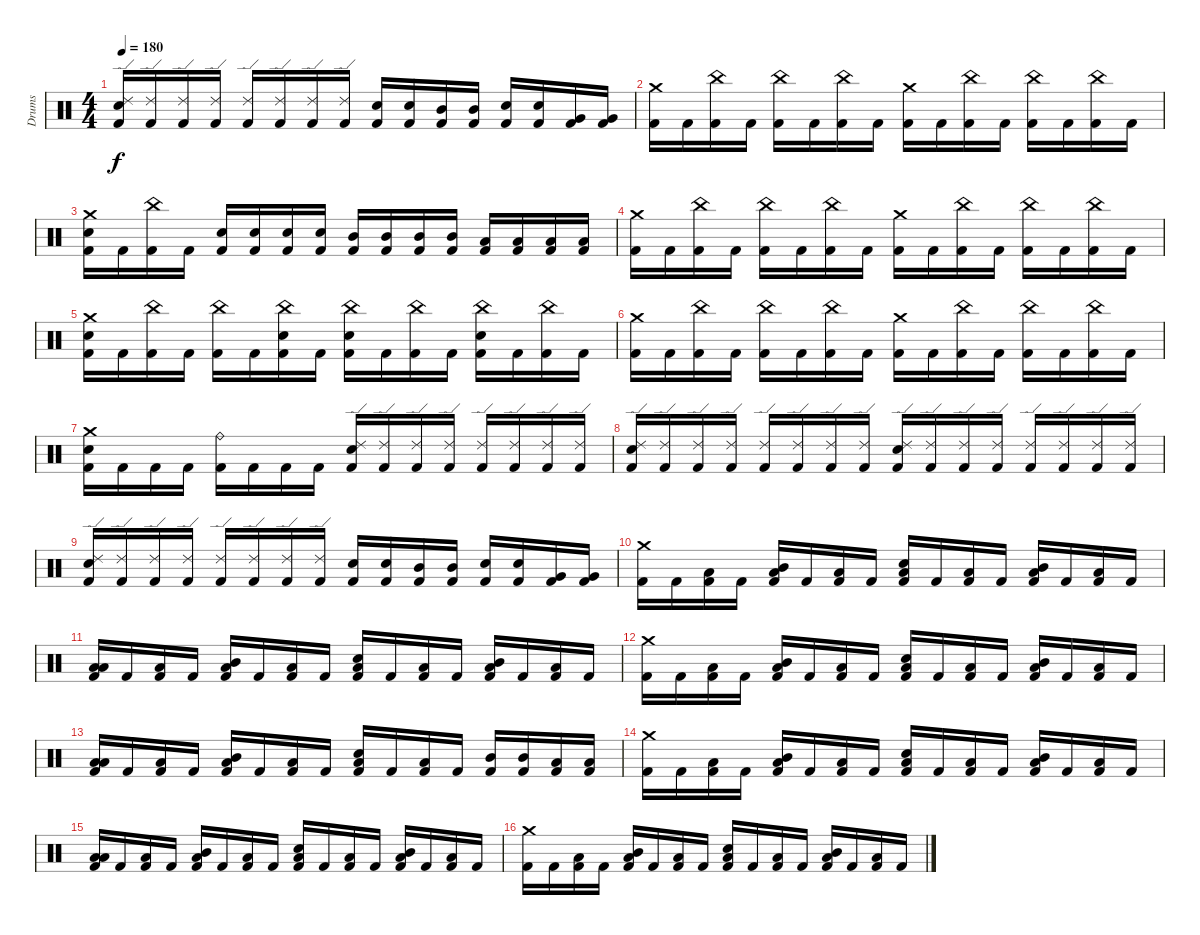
\track ("Drums" "Drums") {instrument percussion}
\staff {score}
\articulation defaults
\ts (4 4)
\tempo 180
\clef neutral
\ks c
("Ride (edge) 2" "Snare (hit) 2" "Kick (hit) 2").16{dy f} ("Ride (edge) 2" "Kick (hit) 2").16 ("Ride (edge) 2" "Kick (hit) 2").16 ("Ride (edge) 2" "Kick (hit) 2").16 ("Ride (edge) 2" "Kick (hit) 2").16 ("Ride (edge) 2" "Kick (hit) 2").16 ("Ride (edge) 2" "Kick (hit) 2").16 ("Ride (edge) 2" "Kick (hit) 2").16 ("Snare (hit) 2" "Kick (hit) 2").16 ("Snare (hit) 2" "Kick (hit) 2").16 ("Mid Tom (hit)" "Kick (hit) 2").16 ("Mid Tom (hit)" "Kick (hit) 2").16 ("Snare (hit) 2" "Kick (hit) 2").16 ("Snare (hit) 2" "Kick (hit) 2").16 ("Very Low Tom (hit)" "Kick (hit) 2").16 ("Very Low Tom (hit)" "Kick (hit) 2").16 |
("Crash medium (hit)" "Kick (hit) 2").16 "Kick (hit) 2".16 ("China (hit)" "Kick (hit) 2").16 "Kick (hit) 2".16 ("China (hit)" "Kick (hit) 2").16 "Kick (hit) 2".16 ("China (hit)" "Kick (hit) 2").16 "Kick (hit) 2".16 ("Crash medium (hit)" "Kick (hit) 2").16 "Kick (hit) 2".16 ("China (hit)" "Kick (hit) 2").16 "Kick (hit) 2".16 ("China (hit)" "Kick (hit) 2").16 "Kick (hit) 2".16 ("China (hit)" "Kick (hit) 2").16 "Kick (hit) 2".16 |
("Crash medium (hit)" "Snare (hit) 2" "Kick (hit) 2").16 "Kick (hit) 2".16 ("China (hit)" "Kick (hit) 2").16 "Kick (hit) 2".16 ("Snare (hit) 2" "Kick (hit) 2").16 ("Snare (hit) 2" "Kick (hit) 2").16 ("Snare (hit) 2" "Kick (hit) 2").16 ("Snare (hit) 2" "Kick (hit) 2").16 ("Mid Tom (hit)" "Kick (hit) 2").16 ("Mid Tom (hit)" "Kick (hit) 2").16 ("Mid Tom (hit)" "Kick (hit) 2").16 ("Mid Tom (hit)" "Kick (hit) 2").16 ("Low Tom (hit)" "Kick (hit) 2").16 ("Low Tom (hit)" "Kick (hit) 2").16 ("Low Tom (hit)" "Kick (hit) 2").16 ("Low Tom (hit)" "Kick (hit) 2").16 |
("Crash medium (hit)" "Kick (hit) 2").16 "Kick (hit) 2".16 ("China (hit)" "Kick (hit) 2").16 "Kick (hit) 2".16 ("China (hit)" "Kick (hit) 2").16 "Kick (hit) 2".16 ("China (hit)" "Kick (hit) 2").16 "Kick (hit) 2".16 ("Crash medium (hit)" "Kick (hit) 2").16 "Kick (hit) 2".16 ("China (hit)" "Kick (hit) 2").16 "Kick (hit) 2".16 ("China (hit)" "Kick (hit) 2").16 "Kick (hit) 2".16 ("China (hit)" "Kick (hit) 2").16 "Kick (hit) 2".16 |
("Crash medium (hit)" "Snare (hit) 2" "Kick (hit) 2").16 "Kick (hit) 2".16 ("China (hit)" "Kick (hit) 2").16 "Kick (hit) 2".16 ("China (hit)" "Kick (hit) 2").16 "Kick (hit) 2".16 ("China (hit)" "Snare (hit) 2" "Kick (hit) 2").16 "Kick (hit) 2".16 ("China (hit)" "Snare (hit) 2" "Kick (hit) 2").16 "Kick (hit) 2".16 ("China (hit)" "Kick (hit) 2").16 "Kick (hit) 2".16 ("China (hit)" "Snare (hit) 2" "Kick (hit) 2").16 "Kick (hit) 2".16 ("China (hit)" "Kick (hit) 2").16 "Kick (hit) 2".16 |
("Crash medium (hit)" "Kick (hit) 2").16 "Kick (hit) 2".16 ("China (hit)" "Kick (hit) 2").16 "Kick (hit) 2".16 ("China (hit)" "Kick (hit) 2").16 "Kick (hit) 2".16 ("China (hit)" "Kick (hit) 2").16 "Kick (hit) 2".16 ("Crash medium (hit)" "Kick (hit) 2").16 "Kick (hit) 2".16 ("China (hit)" "Kick (hit) 2").16 "Kick (hit) 2".16 ("China (hit)" "Kick (hit) 2").16 "Kick (hit) 2".16 ("China (hit)" "Kick (hit) 2").16 "Kick (hit) 2".16 |
("Crash medium (hit)" "Snare (hit) 2" "Kick (hit) 2").16 "Kick (hit) 2".16 "Kick (hit) 2".16 "Kick (hit) 2".16 ("Ride (bell)" "Kick (hit) 2").16 "Kick (hit) 2".16 "Kick (hit) 2".16 "Kick (hit) 2".16 ("Ride (edge) 2" "Snare (hit) 2" "Kick (hit) 2").16 ("Ride (edge) 2" "Kick (hit) 2").16 ("Ride (edge) 2" "Kick (hit) 2").16 ("Ride (edge) 2" "Kick (hit) 2").16 ("Ride (edge) 2" "Kick (hit) 2").16 ("Ride (edge) 2" "Kick (hit) 2").16 ("Ride (edge) 2" "Kick (hit) 2").16 ("Ride (edge) 2" "Kick (hit) 2").16 |
("Ride (edge) 2" "Snare (hit) 2" "Kick (hit) 2").16 ("Ride (edge) 2" "Kick (hit) 2").16 ("Ride (edge) 2" "Kick (hit) 2").16 ("Ride (edge) 2" "Kick (hit) 2").16 ("Ride (edge) 2" "Kick (hit) 2").16 ("Ride (edge) 2" "Kick (hit) 2").16 ("Ride (edge) 2" "Kick (hit) 2").16 ("Ride (edge) 2" "Kick (hit) 2").16 ("Ride (edge) 2" "Snare (hit) 2" "Kick (hit) 2").16 ("Ride (edge) 2" "Kick (hit) 2").16 ("Ride (edge) 2" "Kick (hit) 2").16 ("Ride (edge) 2" "Kick (hit) 2").16 ("Ride (edge) 2" "Kick (hit) 2").16 ("Ride (edge) 2" "Kick (hit) 2").16 ("Ride (edge) 2" "Kick (hit) 2").16 ("Ride (edge) 2" "Kick (hit) 2").16 |
("Ride (edge) 2" "Snare (hit) 2" "Kick (hit) 2").16 ("Ride (edge) 2" "Kick (hit) 2").16 ("Ride (edge) 2" "Kick (hit) 2").16 ("Ride (edge) 2" "Kick (hit) 2").16 ("Ride (edge) 2" "Kick (hit) 2").16 ("Ride (edge) 2" "Kick (hit) 2").16 ("Ride (edge) 2" "Kick (hit) 2").16 ("Ride (edge) 2" "Kick (hit) 2").16 ("Snare (hit) 2" "Kick (hit) 2").16 ("Snare (hit) 2" "Kick (hit) 2").16 ("Mid Tom (hit)" "Kick (hit) 2").16 ("Mid Tom (hit)" "Kick (hit) 2").16 ("Snare (hit) 2" "Kick (hit) 2").16 ("Snare (hit) 2" "Kick (hit) 2").16 ("Very Low Tom (hit)" "Kick (hit) 2").16 ("Very Low Tom (hit)" "Kick (hit) 2").16 |
("Crash medium (hit)" "Kick (hit) 2").16 "Kick (hit) 2".16 ("Low Floor Tom (hit)" "Kick (hit) 2").16 "Kick (hit) 2".16 ("Low Floor Tom (hit)" "Mid Tom (hit)" "Kick (hit) 2").16 "Kick (hit) 2".16 ("Low Floor Tom (hit)" "Kick (hit) 2").16 "Kick (hit) 2".16 ("Low Floor Tom (hit)" "Snare (hit) 2" "Kick (hit) 2").16 "Kick (hit) 2".16 ("Low Floor Tom (hit)" "Kick (hit) 2").16 "Kick (hit) 2".16 ("Low Floor Tom (hit)" "Mid Tom (hit)" "Kick (hit) 2").16 "Kick (hit) 2".16 ("Low Floor Tom (hit)" "Kick (hit) 2").16 "Kick (hit) 2".16 |
("Low Floor Tom (hit)" "Low Tom (hit)" "Kick (hit) 2").16 "Kick (hit) 2".16 ("Low Floor Tom (hit)" "Kick (hit) 2").16 "Kick (hit) 2".16 ("Low Floor Tom (hit)" "Mid Tom (hit)" "Kick (hit) 2").16 "Kick (hit) 2".16 ("Low Floor Tom (hit)" "Kick (hit) 2").16 "Kick (hit) 2".16 ("Low Floor Tom (hit)" "Snare (hit) 2" "Kick (hit) 2").16 "Kick (hit) 2".16 ("Low Floor Tom (hit)" "Kick (hit) 2").16 "Kick (hit) 2".16 ("Low Floor Tom (hit)" "Mid Tom (hit)" "Kick (hit) 2").16 "Kick (hit) 2".16 ("Low Floor Tom (hit)" "Kick (hit) 2").16 "Kick (hit) 2".16 |
("Crash medium (hit)" "Kick (hit) 2").16 "Kick (hit) 2".16 ("Low Floor Tom (hit)" "Kick (hit) 2").16 "Kick (hit) 2".16 ("Low Floor Tom (hit)" "Mid Tom (hit)" "Kick (hit) 2").16 "Kick (hit) 2".16 ("Low Floor Tom (hit)" "Kick (hit) 2").16 "Kick (hit) 2".16 ("Low Floor Tom (hit)" "Snare (hit) 2" "Kick (hit) 2").16 "Kick (hit) 2".16 ("Low Floor Tom (hit)" "Kick (hit) 2").16 "Kick (hit) 2".16 ("Low Floor Tom (hit)" "Mid Tom (hit)" "Kick (hit) 2").16 "Kick (hit) 2".16 ("Low Floor Tom (hit)" "Kick (hit) 2").16 "Kick (hit) 2".16 |
("Low Floor Tom (hit)" "Low Tom (hit)" "Kick (hit) 2").16 "Kick (hit) 2".16 ("Low Floor Tom (hit)" "Kick (hit) 2").16 "Kick (hit) 2".16 ("Low Floor Tom (hit)" "Mid Tom (hit)" "Kick (hit) 2").16 "Kick (hit) 2".16 ("Low Floor Tom (hit)" "Kick (hit) 2").16 "Kick (hit) 2".16 ("Low Floor Tom (hit)" "Snare (hit) 2" "Kick (hit) 2").16 "Kick (hit) 2".16 ("Low Floor Tom (hit)" "Kick (hit) 2").16 "Kick (hit) 2".16 ("Mid Tom (hit)" "Kick (hit) 2").16 ("Mid Tom (hit)" "Kick (hit) 2").16 ("Low Tom (hit)" "Kick (hit) 2").16 ("Low Tom (hit)" "Kick (hit) 2").16 |
("Crash medium (hit)" "Kick (hit) 2").16 "Kick (hit) 2".16 ("Low Floor Tom (hit)" "Kick (hit) 2").16 "Kick (hit) 2".16 ("Low Floor Tom (hit)" "Mid Tom (hit)" "Kick (hit) 2").16 "Kick (hit) 2".16 ("Low Floor Tom (hit)" "Kick (hit) 2").16 "Kick (hit) 2".16 ("Low Floor Tom (hit)" "Snare (hit) 2" "Kick (hit) 2").16 "Kick (hit) 2".16 ("Low Floor Tom (hit)" "Kick (hit) 2").16 "Kick (hit) 2".16 ("Low Floor Tom (hit)" "Mid Tom (hit)" "Kick (hit) 2").16 "Kick (hit) 2".16 ("Low Floor Tom (hit)" "Kick (hit) 2").16 "Kick (hit) 2".16 |
("Low Floor Tom (hit)" "Low Tom (hit)" "Kick (hit) 2").16 "Kick (hit) 2".16 ("Low Floor Tom (hit)" "Kick (hit) 2").16 "Kick (hit) 2".16 ("Low Floor Tom (hit)" "Mid Tom (hit)" "Kick (hit) 2").16 "Kick (hit) 2".16 ("Low Floor Tom (hit)" "Kick (hit) 2").16 "Kick (hit) 2".16 ("Low Floor Tom (hit)" "Snare (hit) 2" "Kick (hit) 2").16 "Kick (hit) 2".16 ("Low Floor Tom (hit)" "Kick (hit) 2").16 "Kick (hit) 2".16 ("Low Floor Tom (hit)" "Mid Tom (hit)" "Kick (hit) 2").16 "Kick (hit) 2".16 ("Low Floor Tom (hit)" "Kick (hit) 2").16 "Kick (hit) 2".16 |
("Crash medium (hit)" "Kick (hit) 2").16 "Kick (hit) 2".16 ("Low Floor Tom (hit)" "Kick (hit) 2").16 "Kick (hit) 2".16 ("Low Floor Tom (hit)" "Mid Tom (hit)" "Kick (hit) 2").16 "Kick (hit) 2".16 ("Low Floor Tom (hit)" "Kick (hit) 2").16 "Kick (hit) 2".16 ("Low Floor Tom (hit)" "Snare (hit) 2" "Kick (hit) 2").16 "Kick (hit) 2".16 ("Low Floor Tom (hit)" "Kick (hit) 2").16 "Kick (hit) 2".16 ("Low Floor Tom (hit)" "Mid Tom (hit)" "Kick (hit) 2").16 "Kick (hit) 2".16 ("Low Floor Tom (hit)" "Kick (hit) 2").16 "Kick (hit) 2".16
